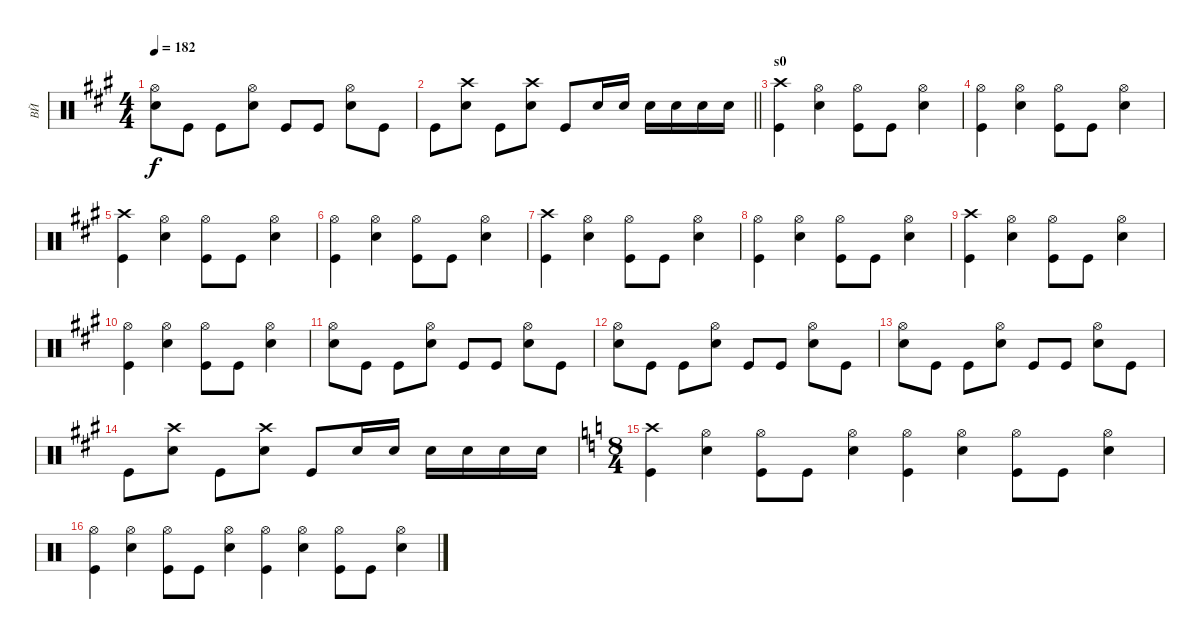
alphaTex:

\track ("ВЙ" "ВЙ") {instrument percussion}
\staff {score}
\articulation defaults
\ts (4 4)
\tempo 182
\clef neutral
\ks a
("Hi-Hat (open)" "Electric Snare (hit)").8{dy f} "Kick (hit)".8 "Kick (hit)".8 ("Hi-Hat (open)" "Electric Snare (hit)").8 "Kick (hit)".8 "Kick (hit)".8 ("Hi-Hat (open)" "Electric Snare (hit)").8 "Kick (hit)".8 |
\barLineRight lightlight "Kick (hit)".8
("Crash high (hit)" "Electric Snare (hit)").8 "Kick (hit)".8 ("Crash high (hit)" "Electric Snare (hit)").8 "Kick (hit)".8 "Electric Snare (hit)".16 "Electric Snare (hit)".16 "Electric Snare (hit)".16 "Electric Snare (hit)".16 "Electric Snare (hit)".16 "Electric Snare (hit)".16 |
\section ("" "s0")
("Crash high (hit)" "Kick (hit)").4 ("Hi-Hat (open)" "Electric Snare (hit)").4 ("Hi-Hat (open)" "Kick (hit)").8 "Kick (hit)".8 ("Hi-Hat (open)" "Electric Snare (hit)").4 |
("Hi-Hat (open)" "Kick (hit)").4 ("Hi-Hat (open)" "Electric Snare (hit)").4 ("Hi-Hat (open)" "Kick (hit)").8 "Kick (hit)".8 ("Hi-Hat (open)" "Electric Snare (hit)").4 |
("Crash high (hit)" "Kick (hit)").4 ("Hi-Hat (open)" "Electric Snare (hit)").4 ("Hi-Hat (open)" "Kick (hit)").8 "Kick (hit)".8 ("Hi-Hat (open)" "Electric Snare (hit)").4 |
("Hi-Hat (open)" "Kick (hit)").4 ("Hi-Hat (open)" "Electric Snare (hit)").4 ("Hi-Hat (open)" "Kick (hit)").8 "Kick (hit)".8 ("Hi-Hat (open)" "Electric Snare (hit)").4 |
("Crash high (hit)" "Kick (hit)").4 ("Hi-Hat (open)" "Electric Snare (hit)").4 ("Hi-Hat (open)" "Kick (hit)").8 "Kick (hit)".8 ("Hi-Hat (open)" "Electric Snare (hit)").4 |
("Hi-Hat (open)" "Kick (hit)").4 ("Hi-Hat (open)" "Electric Snare (hit)").4 ("Hi-Hat (open)" "Kick (hit)").8 "Kick (hit)".8 ("Hi-Hat (open)" "Electric Snare (hit)").4 |
("Crash high (hit)" "Kick (hit)").4 ("Hi-Hat (open)" "Electric Snare (hit)").4 ("Hi-Hat (open)" "Kick (hit)").8 "Kick (hit)".8 ("Hi-Hat (open)" "Electric Snare (hit)").4 |
("Hi-Hat (open)" "Kick (hit)").4 ("Hi-Hat (open)" "Electric Snare (hit)").4 ("Hi-Hat (open)" "Kick (hit)").8 "Kick (hit)".8 ("Hi-Hat (open)" "Electric Snare (hit)").4 |
("Hi-Hat (open)" "Electric Snare (hit)").8 "Kick (hit)".8 "Kick (hit)".8 ("Hi-Hat (open)" "Electric Snare (hit)").8 "Kick (hit)".8 "Kick (hit)".8 ("Hi-Hat (open)" "Electric Snare (hit)").8 "Kick (hit)".8 |
("Hi-Hat (open)" "Electric Snare (hit)").8 "Kick (hit)".8 "Kick (hit)".8 ("Hi-Hat (open)" "Electric Snare (hit)").8 "Kick (hit)".8 "Kick (hit)".8 ("Hi-Hat (open)" "Electric Snare (hit)").8 "Kick (hit)".8 |
("Hi-Hat (open)" "Electric Snare (hit)").8 "Kick (hit)".8 "Kick (hit)".8 ("Hi-Hat (open)" "Electric Snare (hit)").8 "Kick (hit)".8 "Kick (hit)".8 ("Hi-Hat (open)" "Electric Snare (hit)").8 "Kick (hit)".8 |
"Kick (hit)".8 ("Crash high (hit)" "Electric Snare (hit)").8 "Kick (hit)".8 ("Crash high (hit)" "Electric Snare (hit)").8 "Kick (hit)".8 "Electric Snare (hit)".16 "Electric Snare (hit)".16 "Electric Snare (hit)".16 "Electric Snare (hit)".16 "Electric Snare (hit)".16 "Electric Snare (hit)".16 |
\ts (8 4)
\ks c
("Crash high (hit)" "Kick (hit)").4 ("Hi-Hat (open)" "Electric Snare (hit)").4 ("Hi-Hat (open)" "Kick (hit)").8 "Kick (hit)".8 ("Hi-Hat (open)" "Electric Snare (hit)").4 ("Hi-Hat (open)" "Kick (hit)").4 ("Hi-Hat (open)" "Electric Snare (hit)").4 ("Hi-Hat (open)" "Kick (hit)").8 "Kick (hit)".8 ("Hi-Hat (open)" "Electric Snare (hit)").4 |
("Hi-Hat (open)" "Kick (hit)").4 ("Hi-Hat (open)" "Electric Snare (hit)").4 ("Hi-Hat (open)" "Kick (hit)").8 "Kick (hit)".8 ("Hi-Hat (open)" "Electric Snare (hit)").4 ("Hi-Hat (open)" "Kick (hit)").4 ("Hi-Hat (open)" "Electric Snare (hit)").4 ("Hi-Hat (open)" "Kick (hit)").8 "Kick (hit)".8 ("Hi-Hat (open)" "Electric Snare (hit)").4
